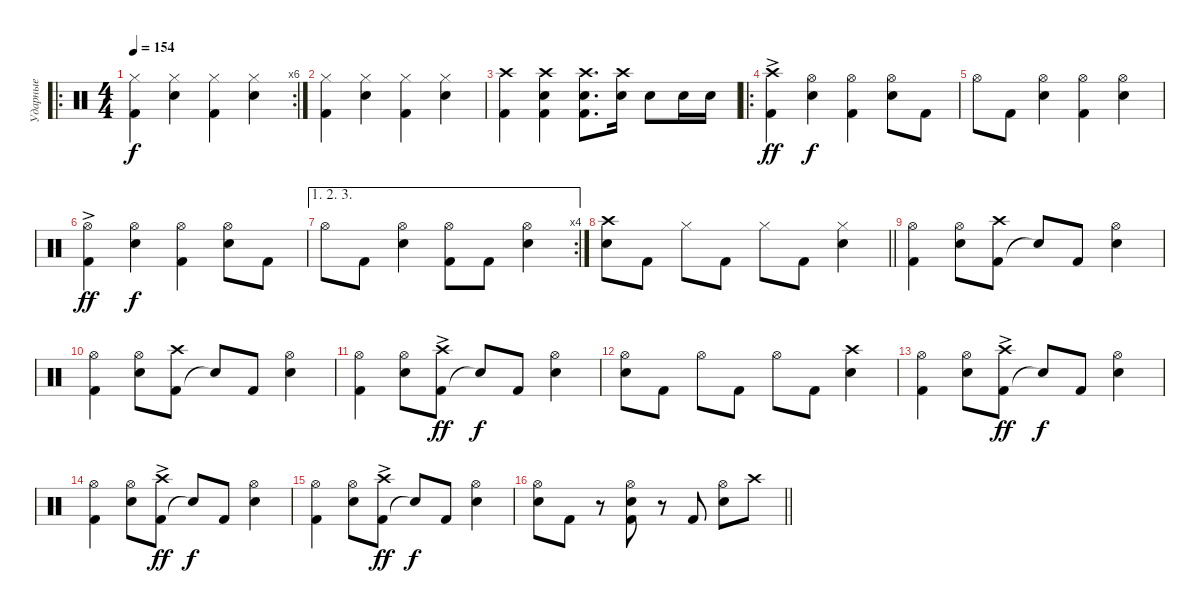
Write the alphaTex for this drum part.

\track ("Ударные" "Ударные") {instrument percussion}
\staff {score}
\articulation defaults
\ro
\rc 6
\ts (4 4)
\tempo 154
\clef neutral
\ks c
("Kick (hit) 2" "Hi-Hat (closed)").4{dy f} ("Snare (hit) 2" "Hi-Hat (closed)").4 ("Kick (hit) 2" "Hi-Hat (closed)").4 ("Snare (hit) 2" "Hi-Hat (closed)").4 |
("Kick (hit) 2" "Hi-Hat (closed)").4 ("Snare (hit) 2" "Hi-Hat (closed)").4 ("Kick (hit) 2" "Hi-Hat (closed)").4 ("Snare (hit) 2" "Hi-Hat (closed)").4 |
("Kick (hit) 2" "Crash high (hit)").4 ("Kick (hit) 2" "Snare (hit) 2" "Crash high (hit)").4 ("Kick (hit) 2" "Snare (hit) 2" "Crash high (hit)").8{d} ("Snare (hit) 2" "Crash high (hit)").16 "Snare (hit) 2".8 "Snare (hit) 2".16 "Snare (hit) 2".16 |
\ro
("Kick (hit) 2" "Crash high (hit)"{ac}).4{dy ff} ("Snare (hit) 2" "Hi-Hat (open)").4{dy f} ("Kick (hit) 2" "Hi-Hat (open)").4 ("Snare (hit) 2" "Hi-Hat (open)").8 "Kick (hit) 2".8 |
"Hi-Hat (open)".8 "Kick (hit) 2".8 ("Snare (hit) 2" "Hi-Hat (open)").4 ("Kick (hit) 2" "Hi-Hat (open)").4 ("Snare (hit) 2" "Hi-Hat (open)").4 |
("Kick (hit) 2" "Hi-Hat (open)"{ac}).4{dy ff} ("Snare (hit) 2" "Hi-Hat (open)").4{dy f} ("Kick (hit) 2" "Hi-Hat (open)").4 ("Snare (hit) 2" "Hi-Hat (open)").8 "Kick (hit) 2".8 |
\ae (1 2 3)
\rc 4 "Hi-Hat (open)".8 "Kick (hit) 2".8
("Snare (hit) 2" "Hi-Hat (open)").4 ("Kick (hit) 2" "Hi-Hat (open)").8 "Kick (hit) 2".8 ("Snare (hit) 2" "Hi-Hat (open)").4 |
\barLineRight lightlight
("Snare (hit) 2" "Crash high (hit)").8 "Kick (hit) 2".8 "Hi-Hat (closed)".8 "Kick (hit) 2".8 "Hi-Hat (closed)".8 "Kick (hit) 2".8 ("Snare (hit) 2" "Hi-Hat (closed)").4 |
("Kick (hit) 2" "Hi-Hat (open)").4 ("Snare (hit) 2" "Hi-Hat (open)").8 ("Kick (hit) 2" "Crash high (hit)").8 "Snare (hit)"{t}.8 "Kick (hit) 2".8 ("Snare (hit) 2" "Hi-Hat (open)").4 |
("Kick (hit) 2" "Hi-Hat (open)").4 ("Snare (hit) 2" "Hi-Hat (open)").8 ("Kick (hit) 2" "Crash high (hit)").8 "Snare (hit)"{t}.8 "Kick (hit) 2".8 ("Snare (hit) 2" "Hi-Hat (open)").4 |
("Kick (hit) 2" "Hi-Hat (open)").4 ("Snare (hit) 2" "Hi-Hat (open)").8 ("Kick (hit) 2" "Crash high (hit)"{ac}).8{dy ff} "Snare (hit)"{t}.8{dy f} "Kick (hit) 2".8 ("Snare (hit) 2" "Hi-Hat (open)").4 |
("Snare (hit) 2" "Hi-Hat (open)").8 "Kick (hit) 2".8 "Hi-Hat (open)".8 "Kick (hit) 2".8 "Hi-Hat (open)".8 "Kick (hit) 2".8 ("Snare (hit) 2" "Crash high (hit)").4 |
("Kick (hit) 2" "Hi-Hat (open)").4 ("Snare (hit) 2" "Hi-Hat (open)").8 ("Kick (hit) 2" "Crash high (hit)"{ac}).8{dy ff} "Snare (hit)"{t}.8{dy f} "Kick (hit) 2".8 ("Snare (hit) 2" "Hi-Hat (open)").4 |
("Kick (hit) 2" "Hi-Hat (open)").4 ("Snare (hit) 2" "Hi-Hat (open)").8 ("Kick (hit) 2" "Crash high (hit)"{ac}).8{dy ff} "Snare (hit)"{t}.8{dy f} "Kick (hit) 2".8 ("Snare (hit) 2" "Hi-Hat (open)").4 |
("Kick (hit) 2" "Hi-Hat (open)").4 ("Snare (hit) 2" "Hi-Hat (open)").8 ("Kick (hit) 2" "Crash high (hit)"{ac}).8{dy ff} "Snare (hit)"{t}.8{dy f} "Kick (hit) 2".8 ("Snare (hit) 2" "Hi-Hat (open)").4 |
\barLineRight lightlight
("Snare (hit) 2" "Hi-Hat (open)").8 "Kick (hit) 2".8 r.8 ("Kick (hit) 2" "Snare (hit) 2" "Hi-Hat (open)").8 r.8 "Kick (hit) 2".8 ("Snare (hit) 2" "Hi-Hat (open)").8 "Crash high (hit)".8
